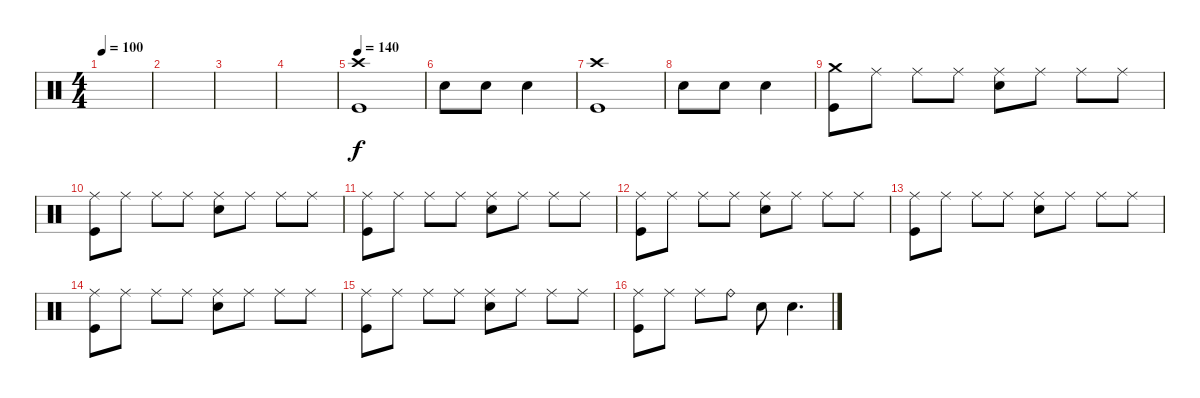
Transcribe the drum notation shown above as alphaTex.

\track "" {instrument percussion}
\staff {score}
\articulation defaults
\ts (4 4)
\tempo 100
\clef neutral
\ks c
|
|
|
|
\tempo 140
("Kick (hit)" "Crash high (hit)").1 |
"Snare (hit) 2".8 "Snare (hit) 2".8 "Snare (hit) 2".4 |
("Kick (hit)" "Crash high (hit)").1 |
"Snare (hit) 2".8 "Snare (hit) 2".8 "Snare (hit) 2".4 |
("Kick (hit)" "Crash medium (hit)").8 "Ride (middle)".8 "Ride (middle)".8 "Ride (middle)".8 ("Snare (hit) 2" "Ride (middle)").8 "Ride (middle)".8 "Ride (middle)".8 "Ride (middle)".8 |
("Kick (hit)" "Ride (middle)").8 "Ride (middle)".8 "Ride (middle)".8 "Ride (middle)".8 ("Snare (hit) 2" "Ride (middle)").8 "Ride (middle)".8 "Ride (middle)".8 "Ride (middle)".8 |
("Kick (hit)" "Ride (middle)").8 "Ride (middle)".8 "Ride (middle)".8 "Ride (middle)".8 ("Snare (hit) 2" "Ride (middle)").8 "Ride (middle)".8 "Ride (middle)".8 "Ride (middle)".8 |
("Kick (hit)" "Ride (middle)").8 "Ride (middle)".8 "Ride (middle)".8 "Ride (middle)".8 ("Snare (hit) 2" "Ride (middle)").8 "Ride (middle)".8 "Ride (middle)".8 "Ride (middle)".8 |
("Kick (hit)" "Ride (middle)").8 "Ride (middle)".8 "Ride (middle)".8 "Ride (middle)".8 ("Snare (hit) 2" "Ride (middle)").8 "Ride (middle)".8 "Ride (middle)".8 "Ride (middle)".8 |
("Kick (hit)" "Ride (middle)").8 "Ride (middle)".8 "Ride (middle)".8 "Ride (middle)".8 ("Snare (hit) 2" "Ride (middle)").8 "Ride (middle)".8 "Ride (middle)".8 "Ride (middle)".8 |
("Kick (hit)" "Ride (middle)").8 "Ride (middle)".8 "Ride (middle)".8 "Ride (middle)".8 ("Snare (hit) 2" "Ride (middle)").8 "Ride (middle)".8 "Ride (middle)".8 "Ride (middle)".8 |
("Kick (hit)" "Ride (middle)").8 "Ride (middle)".8 "Ride (middle)".8 "Ride (bell)".8 "Snare (hit) 2".8 "Snare (hit) 2".4{d}
